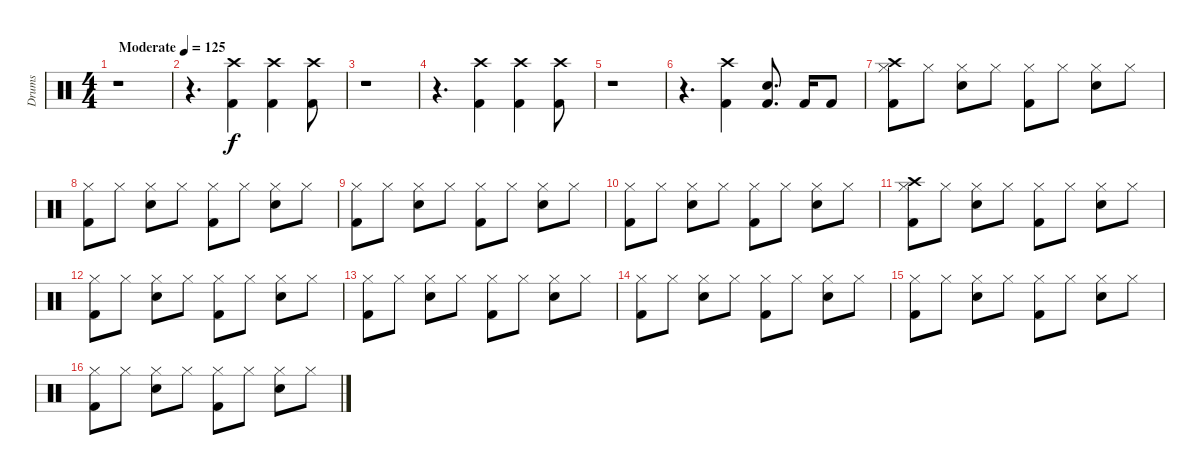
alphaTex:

\track ("Drums" "Drums") {instrument percussion}
\staff {score}
\articulation defaults
\ts (4 4)
\tempo (125 "Moderate")
\clef neutral
\ks c
r.1{dy f} |
r.4{d} ("Kick (hit) 2" "Crash high (hit)").4 ("Kick (hit) 2" "Crash high (hit)").4 ("Kick (hit) 2" "Crash high (hit)").8 |
r.1 |
r.4{d} ("Crash high (hit)" "Kick (hit) 2").4 ("Crash high (hit)" "Kick (hit) 2").4 ("Kick (hit) 2" "Crash high (hit)").8 |
r.1 |
r.4{d} ("Kick (hit) 2" "Crash high (hit)").4 ("Kick (hit) 2" "Snare (hit) 2").8{d} "Kick (hit) 2".16 "Kick (hit) 2".8 |
("Kick (hit) 2" "Hi-Hat (closed)" "Crash high (hit)").8 "Hi-Hat (closed)".8 ("Snare (hit) 2" "Hi-Hat (closed)").8 "Hi-Hat (closed)".8 ("Kick (hit) 2" "Hi-Hat (closed)").8 "Hi-Hat (closed)".8 ("Snare (hit) 2" "Hi-Hat (closed)").8 "Hi-Hat (closed)".8 |
("Kick (hit) 2" "Hi-Hat (closed)").8 "Hi-Hat (closed)".8 ("Snare (hit) 2" "Hi-Hat (closed)").8 "Hi-Hat (closed)".8 ("Kick (hit) 2" "Hi-Hat (closed)").8 "Hi-Hat (closed)".8 ("Snare (hit) 2" "Hi-Hat (closed)").8 "Hi-Hat (closed)".8 |
("Kick (hit) 2" "Hi-Hat (closed)").8 "Hi-Hat (closed)".8 ("Snare (hit) 2" "Hi-Hat (closed)").8 "Hi-Hat (closed)".8 ("Kick (hit) 2" "Hi-Hat (closed)").8 "Hi-Hat (closed)".8 ("Snare (hit) 2" "Hi-Hat (closed)").8 "Hi-Hat (closed)".8 |
("Kick (hit) 2" "Hi-Hat (closed)").8 "Hi-Hat (closed)".8 ("Snare (hit) 2" "Hi-Hat (closed)").8 "Hi-Hat (closed)".8 ("Kick (hit) 2" "Hi-Hat (closed)").8 "Hi-Hat (closed)".8 ("Snare (hit) 2" "Hi-Hat (closed)").8 "Hi-Hat (closed)".8 |
("Crash high (hit)" "Kick (hit) 2" "Hi-Hat (closed)").8 "Hi-Hat (closed)".8 ("Hi-Hat (closed)" "Snare (hit) 2").8 "Hi-Hat (closed)".8 ("Hi-Hat (closed)" "Kick (hit) 2").8 "Hi-Hat (closed)".8 ("Hi-Hat (closed)" "Snare (hit) 2").8 "Hi-Hat (closed)".8 |
("Hi-Hat (closed)" "Kick (hit) 2").8 "Hi-Hat (closed)".8 ("Hi-Hat (closed)" "Snare (hit) 2").8 "Hi-Hat (closed)".8 ("Hi-Hat (closed)" "Kick (hit) 2").8 "Hi-Hat (closed)".8 ("Hi-Hat (closed)" "Snare (hit) 2").8 "Hi-Hat (closed)".8 |
("Hi-Hat (closed)" "Kick (hit) 2").8 "Hi-Hat (closed)".8 ("Hi-Hat (closed)" "Snare (hit) 2").8 "Hi-Hat (closed)".8 ("Hi-Hat (closed)" "Kick (hit) 2").8 "Hi-Hat (closed)".8 ("Hi-Hat (closed)" "Snare (hit) 2").8 "Hi-Hat (closed)".8 |
("Hi-Hat (closed)" "Kick (hit) 2").8 "Hi-Hat (closed)".8 ("Hi-Hat (closed)" "Snare (hit) 2").8 "Hi-Hat (closed)".8 ("Hi-Hat (closed)" "Kick (hit) 2").8 "Hi-Hat (closed)".8 ("Hi-Hat (closed)" "Snare (hit) 2").8 "Hi-Hat (closed)".8 |
("Hi-Hat (closed)" "Kick (hit) 2").8 "Hi-Hat (closed)".8 ("Hi-Hat (closed)" "Snare (hit) 2").8 "Hi-Hat (closed)".8 ("Hi-Hat (closed)" "Kick (hit) 2").8 "Hi-Hat (closed)".8 ("Hi-Hat (closed)" "Snare (hit) 2").8 "Hi-Hat (closed)".8 |
("Hi-Hat (closed)" "Kick (hit) 2").8 "Hi-Hat (closed)".8 ("Hi-Hat (closed)" "Snare (hit) 2").8 "Hi-Hat (closed)".8 ("Hi-Hat (closed)" "Kick (hit) 2").8 "Hi-Hat (closed)".8 ("Hi-Hat (closed)" "Snare (hit) 2").8 "Hi-Hat (closed)".8
